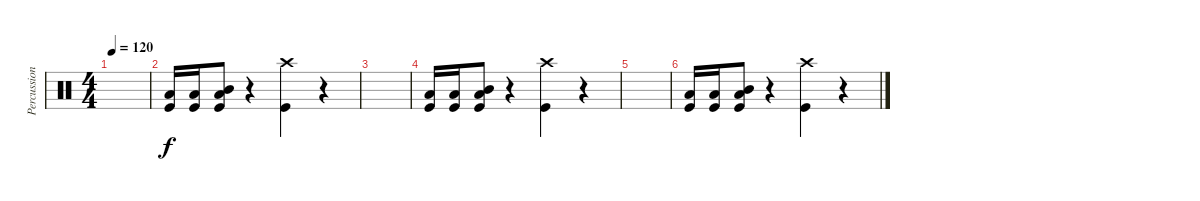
\track ("Percussioni" "Percussion") {instrument percussion}
\staff {score}
\articulation defaults
\ts (4 4)
\tempo 120
\clef neutral
\ks c
|
("Low Tom (hit)" "Kick (hit)").16{volume 4} ("Low Tom (hit)" "Kick (hit)").16 ("Mid Tom (hit)" "Low Tom (hit)" "Kick (hit)").8 r.4 ("Crash high (hit)" "Kick (hit)").4 r.4 |
|
("Low Tom (hit)" "Kick (hit)").16{volume 2} ("Low Tom (hit)" "Kick (hit)").16 ("Mid Tom (hit)" "Low Tom (hit)" "Kick (hit)").8 r.4 ("Crash high (hit)" "Kick (hit)").4 r.4 |
|
("Low Tom (hit)" "Kick (hit)").16{volume 0} ("Low Tom (hit)" "Kick (hit)").16 ("Mid Tom (hit)" "Low Tom (hit)" "Kick (hit)").8 r.4 ("Crash high (hit)" "Kick (hit)").4 r.4
